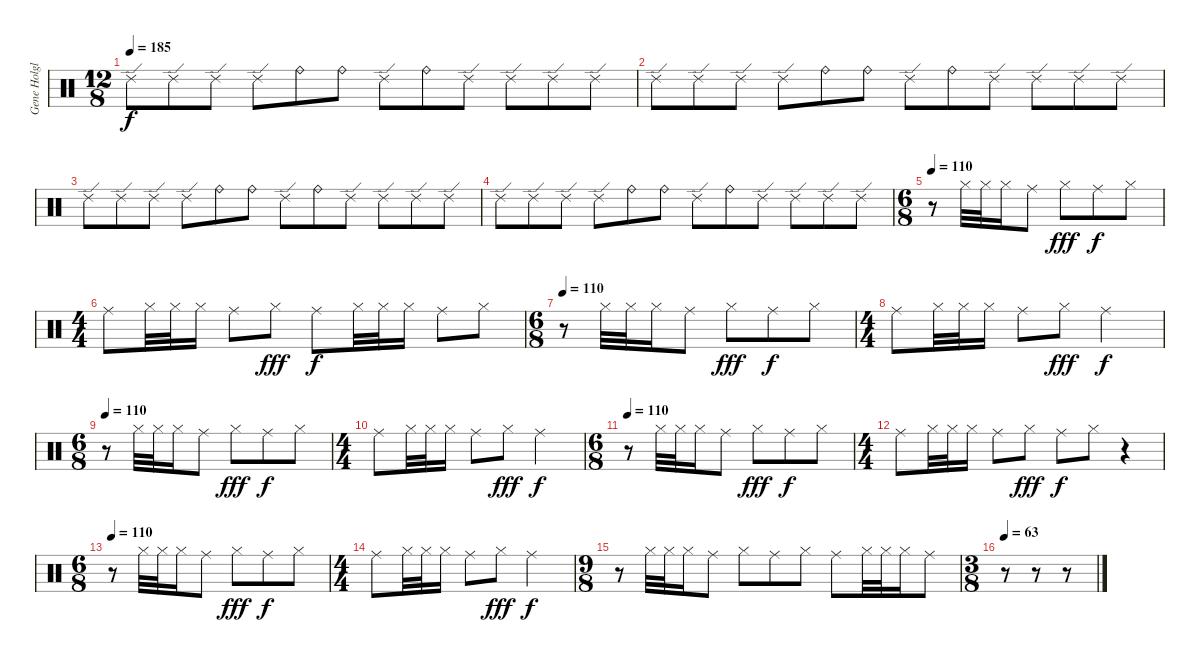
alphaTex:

\track ("Gene Holglan" "Gene Holgl") {instrument percussion}
\staff {score}
\articulation defaults
\ts (12 8)
\tempo 185
\clef neutral
\ks c "Ride (edge) 2".8{dy f} "Ride (edge) 2".8 "Ride (edge) 2".8 "Ride (edge) 2".8 "Ride (bell)".8 "Ride (bell)".8 "Ride (edge) 2".8 "Ride (bell)".8 "Ride (edge) 2".8 "Ride (edge) 2".8 "Ride (edge) 2".8 "Ride (edge) 2".8
|
"Ride (edge) 2".8 "Ride (edge) 2".8 "Ride (edge) 2".8 "Ride (edge) 2".8 "Ride (bell)".8 "Ride (bell)".8 "Ride (edge) 2".8 "Ride (bell)".8 "Ride (edge) 2".8 "Ride (edge) 2".8 "Ride (edge) 2".8 "Ride (edge) 2".8 |
"Ride (edge) 2".8 "Ride (edge) 2".8 "Ride (edge) 2".8 "Ride (edge) 2".8 "Ride (bell)".8 "Ride (bell)".8 "Ride (edge) 2".8 "Ride (bell)".8 "Ride (edge) 2".8 "Ride (edge) 2".8 "Ride (edge) 2".8 "Ride (edge) 2".8 |
"Ride (edge) 2".8 "Ride (edge) 2".8 "Ride (edge) 2".8 "Ride (edge) 2".8 "Ride (bell)".8 "Ride (bell)".8 "Ride (edge) 2".8 "Ride (bell)".8 "Ride (edge) 2".8 "Ride (edge) 2".8 "Ride (edge) 2".8 "Ride (edge) 2".8 |
\ts (6 8)
\tempo 110
r.8 "Hi-Hat (closed)".32 "Hi-Hat (closed)".32 "Hi-Hat (closed)".16 "Ride (middle)".8 "Hi-Hat (closed)".8{dy fff} "Ride (middle)".8{dy f} "Hi-Hat (closed)".8 |
\ts (4 4)
"Ride (middle)".8 "Hi-Hat (closed)".32 "Hi-Hat (closed)".32 "Hi-Hat (closed)".16 "Ride (middle)".8 "Hi-Hat (closed)".8{dy fff} "Ride (middle)".8{dy f} "Hi-Hat (closed)".32 "Hi-Hat (closed)".32 "Hi-Hat (closed)".16 "Ride (middle)".8 "Hi-Hat (closed)".8 |
\ts (6 8)
\tempo 110
r.8 "Hi-Hat (closed)".32 "Hi-Hat (closed)".32 "Hi-Hat (closed)".16 "Ride (middle)".8 "Hi-Hat (closed)".8{dy fff} "Ride (middle)".8{dy f} "Hi-Hat (closed)".8 |
\ts (4 4)
"Ride (middle)".8 "Hi-Hat (closed)".32 "Hi-Hat (closed)".32 "Hi-Hat (closed)".16 "Ride (middle)".8 "Hi-Hat (closed)".8{dy fff} "Ride (middle)".2{dy f} |
\ts (6 8)
\tempo 110
r.8 "Hi-Hat (closed)".32 "Hi-Hat (closed)".32 "Hi-Hat (closed)".16 "Ride (middle)".8 "Hi-Hat (closed)".8{dy fff} "Ride (middle)".8{dy f} "Hi-Hat (closed)".8 |
\ts (4 4)
"Ride (middle)".8 "Hi-Hat (closed)".32 "Hi-Hat (closed)".32 "Hi-Hat (closed)".16 "Ride (middle)".8 "Hi-Hat (closed)".8{dy fff} "Ride (middle)".2{dy f} |
\ts (6 8)
\tempo 110
r.8 "Hi-Hat (closed)".32 "Hi-Hat (closed)".32 "Hi-Hat (closed)".16 "Ride (middle)".8 "Hi-Hat (closed)".8{dy fff} "Ride (middle)".8{dy f} "Hi-Hat (closed)".8 |
\ts (4 4)
"Ride (middle)".8 "Hi-Hat (closed)".32 "Hi-Hat (closed)".32 "Hi-Hat (closed)".16 "Ride (middle)".8 "Hi-Hat (closed)".8{dy fff} "Ride (middle)".8{dy f} "Hi-Hat (closed)".8 r.4 |
\ts (6 8)
\tempo 110
r.8 "Hi-Hat (closed)".32 "Hi-Hat (closed)".32 "Hi-Hat (closed)".16 "Ride (middle)".8 "Hi-Hat (closed)".8{dy fff} "Ride (middle)".8{dy f} "Hi-Hat (closed)".8 |
\ts (4 4)
"Ride (middle)".8 "Hi-Hat (closed)".32 "Hi-Hat (closed)".32 "Hi-Hat (closed)".16 "Ride (middle)".8 "Hi-Hat (closed)".8{dy fff} "Ride (middle)".2{dy f} |
\ts (9 8)
r.8 "Hi-Hat (closed)".32 "Hi-Hat (closed)".32 "Hi-Hat (closed)".16 "Ride (middle)".8 "Hi-Hat (closed)".8 "Ride (middle)".8 "Hi-Hat (closed)".8 "Ride (middle)".8 "Hi-Hat (closed)".32 "Hi-Hat (closed)".32 "Hi-Hat (closed)".16 "Ride (middle)".8 |
\ts (3 8)
\tempo 63
r.8 r.8 r.8
